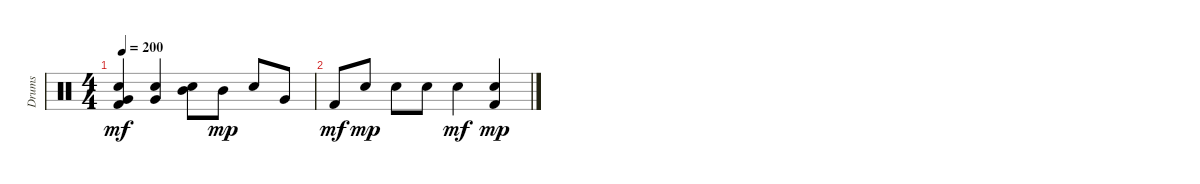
\track ("Drums" "Drums") {instrument percussion}
\staff {score}
\articulation defaults
\ts (4 4)
\tempo 200
\clef neutral
\ks c
("Very Low Tom (hit)" "Snare (hit) 2" "Kick (hit) 2").4{dy mf} ("Very Low Tom (hit)" "Snare (hit) 2").4 ("Snare (hit) 2" "Mid Tom (hit)").8 "Mid Tom (hit)".8{dy mp} "Snare (hit) 2".8 "Very Low Tom (hit)".8 |
"Kick (hit) 2".8{dy mf} "Snare (hit) 2".8{dy mp} "Snare (hit) 2".8 "Snare (hit) 2".8 "Snare (hit) 2".4{dy mf} ("Snare (hit) 2" "Kick (hit) 2").4{dy mp}
